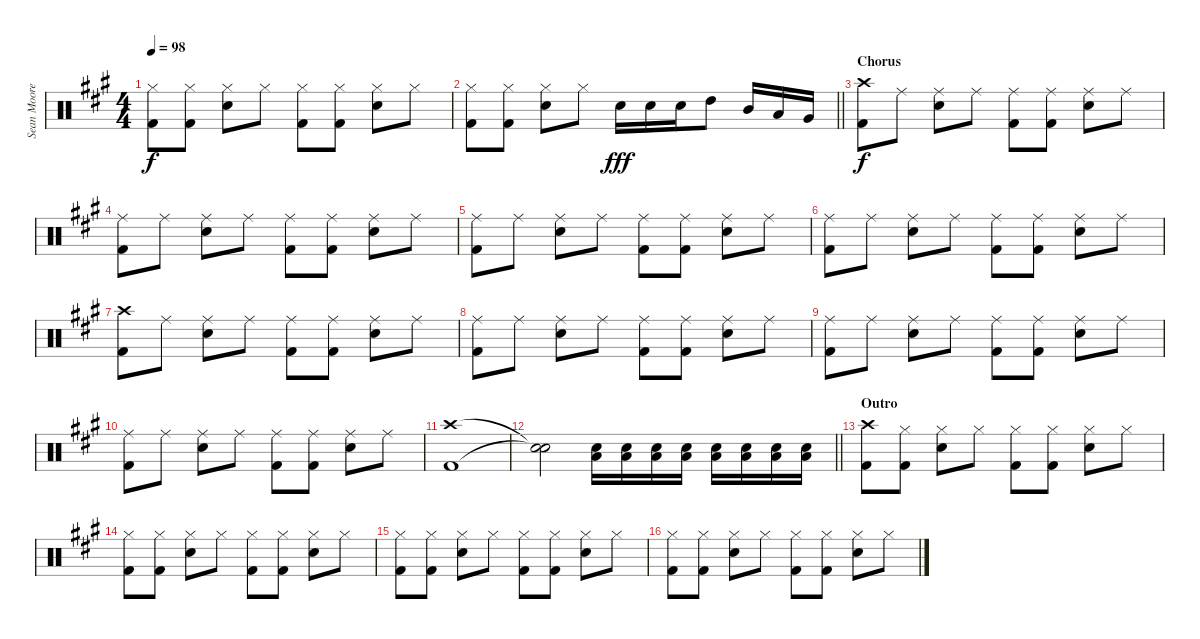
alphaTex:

\track ("Sean Moore (Drums)" "Sean Moore") {instrument percussion}
\staff {score}
\articulation defaults
\ts (4 4)
\tempo 98
\clef neutral
\ks a
("Hi-Hat (closed)" "Kick (hit) 2").8{dy f} ("Hi-Hat (closed)" "Kick (hit) 2").8 ("Hi-Hat (closed)" "Electric Snare (hit)").8 "Hi-Hat (closed)".8 ("Hi-Hat (closed)" "Kick (hit) 2").8 ("Hi-Hat (closed)" "Kick (hit) 2").8 ("Hi-Hat (closed)" "Electric Snare (hit)").8 "Hi-Hat (closed)".8 |
\barLineRight lightlight
("Hi-Hat (closed)" "Kick (hit) 2").8 ("Hi-Hat (closed)" "Kick (hit) 2").8 ("Hi-Hat (closed)" "Electric Snare (hit)").8 "Hi-Hat (closed)".8 "Electric Snare (hit)".16{dy fff} "Electric Snare (hit)".16 "Electric Snare (hit)".16 "High Tom (hit)".8 "Mid Tom (hit)".16 "Low Tom (hit)".16 "Very Low Tom (hit)".16 |
\section ("" "Chorus")
("Crash high (hit)" "Kick (hit) 2").8{dy f} "Ride (middle)".8 ("Ride (middle)" "Electric Snare (hit)").8 "Ride (middle)".8 ("Ride (middle)" "Kick (hit) 2").8 ("Ride (middle)" "Kick (hit) 2").8 ("Ride (middle)" "Electric Snare (hit)").8 "Ride (middle)".8 |
("Ride (middle)" "Kick (hit) 2").8 "Ride (middle)".8 ("Ride (middle)" "Electric Snare (hit)").8 "Ride (middle)".8 ("Ride (middle)" "Kick (hit) 2").8 ("Ride (middle)" "Kick (hit) 2").8 ("Ride (middle)" "Electric Snare (hit)").8 "Ride (middle)".8 |
("Ride (middle)" "Kick (hit) 2").8 "Ride (middle)".8 ("Ride (middle)" "Electric Snare (hit)").8 "Ride (middle)".8 ("Ride (middle)" "Kick (hit) 2").8 ("Ride (middle)" "Kick (hit) 2").8 ("Ride (middle)" "Electric Snare (hit)").8 "Ride (middle)".8 |
("Ride (middle)" "Kick (hit) 2").8 "Ride (middle)".8 ("Ride (middle)" "Electric Snare (hit)").8 "Ride (middle)".8 ("Ride (middle)" "Kick (hit) 2").8 ("Ride (middle)" "Kick (hit) 2").8 ("Ride (middle)" "Electric Snare (hit)").8 "Ride (middle)".8 |
("Crash high (hit)" "Kick (hit) 2").8 "Ride (middle)".8 ("Ride (middle)" "Electric Snare (hit)").8 "Ride (middle)".8 ("Ride (middle)" "Kick (hit) 2").8 ("Ride (middle)" "Kick (hit) 2").8 ("Ride (middle)" "Electric Snare (hit)").8 "Ride (middle)".8 |
("Ride (middle)" "Kick (hit) 2").8 "Ride (middle)".8 ("Ride (middle)" "Electric Snare (hit)").8 "Ride (middle)".8 ("Ride (middle)" "Kick (hit) 2").8 ("Ride (middle)" "Kick (hit) 2").8 ("Ride (middle)" "Electric Snare (hit)").8 "Ride (middle)".8 |
("Ride (middle)" "Kick (hit) 2").8 "Ride (middle)".8 ("Ride (middle)" "Electric Snare (hit)").8 "Ride (middle)".8 ("Ride (middle)" "Kick (hit) 2").8 ("Ride (middle)" "Kick (hit) 2").8 ("Ride (middle)" "Electric Snare (hit)").8 "Ride (middle)".8 |
("Ride (middle)" "Kick (hit) 2").8 "Ride (middle)".8 ("Ride (middle)" "Electric Snare (hit)").8 "Ride (middle)".8 ("Ride (middle)" "Kick (hit) 2").8 ("Ride (middle)" "Kick (hit) 2").8 ("Ride (middle)" "Electric Snare (hit)").8 "Ride (middle)".8 |
("Crash high (hit)" "Kick (hit) 2").1 |
\barLineRight lightlight
("Snare (hit)"{t} "Snare (hit)"{t}).2 ("Electric Snare (hit)" "Low Floor Tom (hit)").16 ("Electric Snare (hit)" "Low Floor Tom (hit)").16 ("Electric Snare (hit)" "Low Floor Tom (hit)").16 ("Electric Snare (hit)" "Low Floor Tom (hit)").16 ("Electric Snare (hit)" "Low Floor Tom (hit)").16 ("Electric Snare (hit)" "Low Floor Tom (hit)").16 ("Electric Snare (hit)" "Low Floor Tom (hit)").16 ("Electric Snare (hit)" "Low Floor Tom (hit)").16 |
\section ("" "Outro")
("Crash high (hit)" "Kick (hit) 2").8 ("Hi-Hat (closed)" "Kick (hit) 2").8 ("Hi-Hat (closed)" "Electric Snare (hit)").8 "Hi-Hat (closed)".8 ("Hi-Hat (closed)" "Kick (hit) 2").8 ("Hi-Hat (closed)" "Kick (hit) 2").8 ("Hi-Hat (closed)" "Electric Snare (hit)").8 "Hi-Hat (closed)".8 |
("Hi-Hat (closed)" "Kick (hit) 2").8 ("Hi-Hat (closed)" "Kick (hit) 2").8 ("Hi-Hat (closed)" "Electric Snare (hit)").8 "Hi-Hat (closed)".8 ("Hi-Hat (closed)" "Kick (hit) 2").8 ("Hi-Hat (closed)" "Kick (hit) 2").8 ("Hi-Hat (closed)" "Electric Snare (hit)").8 "Hi-Hat (closed)".8 |
("Hi-Hat (closed)" "Kick (hit) 2").8 ("Hi-Hat (closed)" "Kick (hit) 2").8 ("Hi-Hat (closed)" "Electric Snare (hit)").8 "Hi-Hat (closed)".8 ("Hi-Hat (closed)" "Kick (hit) 2").8 ("Hi-Hat (closed)" "Kick (hit) 2").8 ("Hi-Hat (closed)" "Electric Snare (hit)").8 "Hi-Hat (closed)".8 |
("Hi-Hat (closed)" "Kick (hit) 2").8 ("Hi-Hat (closed)" "Kick (hit) 2").8 ("Hi-Hat (closed)" "Electric Snare (hit)").8 "Hi-Hat (closed)".8 ("Hi-Hat (closed)" "Kick (hit) 2").8 ("Hi-Hat (closed)" "Kick (hit) 2").8 ("Hi-Hat (closed)" "Electric Snare (hit)").8 "Hi-Hat (closed)".8
